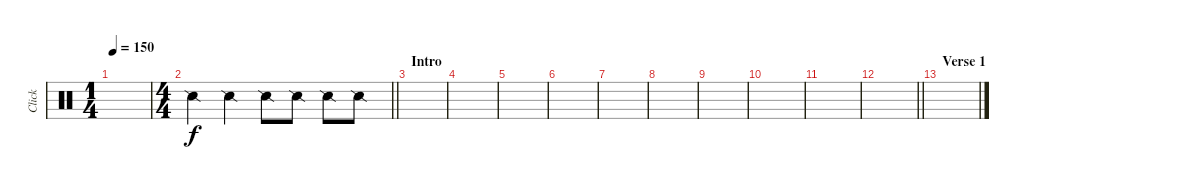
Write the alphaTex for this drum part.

\track ("Click" "Click") {instrument percussion}
\staff {score}
\articulation defaults
\ts (1 4)
\tempo 150
\clef neutral
\ks c
|
\ts (4 4)
\barLineRight lightlight "Snare (side stick) 2".4 "Snare (side stick) 2".4 "Snare (side stick) 2".8 "Snare (side stick) 2".8 "Snare (side stick) 2".8 "Snare (side stick) 2".8
|
\section ("" "Intro")
|
|
|
|
|
|
|
|
|
\barLineRight lightlight
|
\section ("" "Verse 1")
